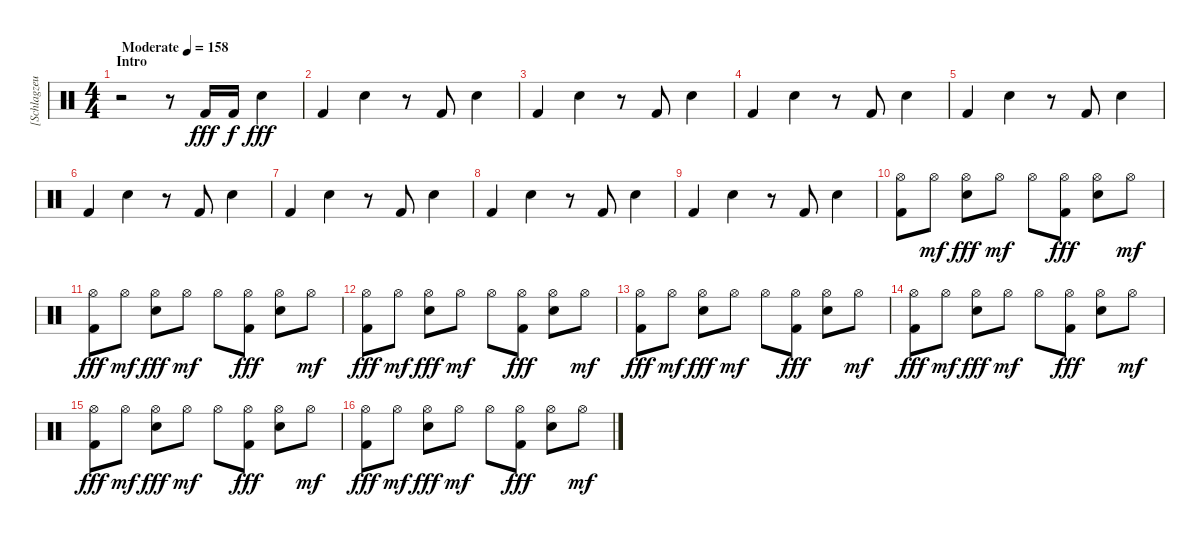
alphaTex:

\track ("[Schlagzeug]" "[Schlagzeu") {instrument percussion}
\staff {score}
\articulation defaults
\ts (4 4)
\section ("" "Intro")
\tempo (158 "Moderate")
\clef neutral
\ks c
r.2{dy fff} r.8 "Kick (hit) 2".16 "Kick (hit) 2".16{dy f} "Electric Snare (hit)".4{dy fff} |
"Kick (hit) 2".4 "Electric Snare (hit)".4 r.8 "Kick (hit) 2".8 "Electric Snare (hit)".4 |
"Kick (hit) 2".4 "Electric Snare (hit)".4 r.8 "Kick (hit) 2".8 "Electric Snare (hit)".4 |
"Kick (hit) 2".4 "Electric Snare (hit)".4 r.8 "Kick (hit) 2".8 "Electric Snare (hit)".4 |
"Kick (hit) 2".4 "Electric Snare (hit)".4 r.8 "Kick (hit) 2".8 "Electric Snare (hit)".4 |
"Kick (hit) 2".4 "Electric Snare (hit)".4 r.8 "Kick (hit) 2".8 "Electric Snare (hit)".4 |
"Kick (hit) 2".4 "Electric Snare (hit)".4 r.8 "Kick (hit) 2".8 "Electric Snare (hit)".4 |
"Kick (hit) 2".4 "Electric Snare (hit)".4 r.8 "Kick (hit) 2".8 "Electric Snare (hit)".4 |
"Kick (hit) 2".4 "Electric Snare (hit)".4 r.8 "Kick (hit) 2".8 "Electric Snare (hit)".4 |
("Hi-Hat (open)" "Kick (hit) 2").8 "Hi-Hat (open)".8{dy mf} ("Hi-Hat (open)" "Electric Snare (hit)").8{dy fff} "Hi-Hat (open)".8{dy mf} "Hi-Hat (open)".8 ("Hi-Hat (open)" "Kick (hit) 2").8{dy fff} ("Hi-Hat (open)" "Electric Snare (hit)").8 "Hi-Hat (open)".8{dy mf} |
("Hi-Hat (open)" "Kick (hit) 2").8{dy fff} "Hi-Hat (open)".8{dy mf} ("Hi-Hat (open)" "Electric Snare (hit)").8{dy fff} "Hi-Hat (open)".8{dy mf} "Hi-Hat (open)".8 ("Hi-Hat (open)" "Kick (hit) 2").8{dy fff} ("Hi-Hat (open)" "Electric Snare (hit)").8 "Hi-Hat (open)".8{dy mf} |
("Hi-Hat (open)" "Kick (hit) 2").8{dy fff} "Hi-Hat (open)".8{dy mf} ("Hi-Hat (open)" "Electric Snare (hit)").8{dy fff} "Hi-Hat (open)".8{dy mf} "Hi-Hat (open)".8 ("Hi-Hat (open)" "Kick (hit) 2").8{dy fff} ("Hi-Hat (open)" "Electric Snare (hit)").8 "Hi-Hat (open)".8{dy mf} |
("Hi-Hat (open)" "Kick (hit) 2").8{dy fff} "Hi-Hat (open)".8{dy mf} ("Hi-Hat (open)" "Electric Snare (hit)").8{dy fff} "Hi-Hat (open)".8{dy mf} "Hi-Hat (open)".8 ("Hi-Hat (open)" "Kick (hit) 2").8{dy fff} ("Hi-Hat (open)" "Electric Snare (hit)").8 "Hi-Hat (open)".8{dy mf} |
("Hi-Hat (open)" "Kick (hit) 2").8{dy fff} "Hi-Hat (open)".8{dy mf} ("Hi-Hat (open)" "Electric Snare (hit)").8{dy fff} "Hi-Hat (open)".8{dy mf} "Hi-Hat (open)".8 ("Hi-Hat (open)" "Kick (hit) 2").8{dy fff} ("Hi-Hat (open)" "Electric Snare (hit)").8 "Hi-Hat (open)".8{dy mf} |
("Hi-Hat (open)" "Kick (hit) 2").8{dy fff} "Hi-Hat (open)".8{dy mf} ("Hi-Hat (open)" "Electric Snare (hit)").8{dy fff} "Hi-Hat (open)".8{dy mf} "Hi-Hat (open)".8 ("Hi-Hat (open)" "Kick (hit) 2").8{dy fff} ("Hi-Hat (open)" "Electric Snare (hit)").8 "Hi-Hat (open)".8{dy mf} |
("Hi-Hat (open)" "Kick (hit) 2").8{dy fff} "Hi-Hat (open)".8{dy mf} ("Hi-Hat (open)" "Electric Snare (hit)").8{dy fff} "Hi-Hat (open)".8{dy mf} "Hi-Hat (open)".8 ("Hi-Hat (open)" "Kick (hit) 2").8{dy fff} ("Hi-Hat (open)" "Electric Snare (hit)").8 "Hi-Hat (open)".8{dy mf}
